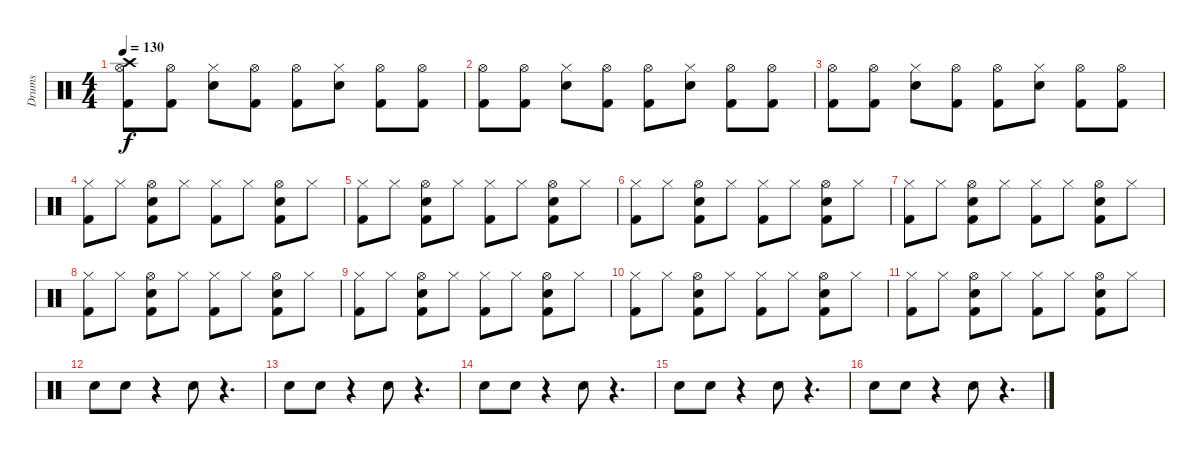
\track ("Drums" "Drums") {instrument percussion}
\staff {score}
\articulation defaults
\ts (4 4)
\tempo 130
\clef neutral
\ks c
("Crash high (hit)" "Hi-Hat (open)" "Kick (hit) 2").8{dy f} ("Hi-Hat (open)" "Kick (hit) 2").8 ("Hi-Hat (closed)" "Electric Snare (hit)").8 ("Hi-Hat (open)" "Kick (hit) 2").8 ("Hi-Hat (open)" "Kick (hit) 2").8 ("Hi-Hat (closed)" "Electric Snare (hit)").8 ("Hi-Hat (open)" "Kick (hit) 2").8 ("Hi-Hat (open)" "Kick (hit) 2").8 |
("Hi-Hat (open)" "Kick (hit) 2").8 ("Hi-Hat (open)" "Kick (hit) 2").8 ("Hi-Hat (closed)" "Electric Snare (hit)").8 ("Hi-Hat (open)" "Kick (hit) 2").8 ("Hi-Hat (open)" "Kick (hit) 2").8 ("Hi-Hat (closed)" "Electric Snare (hit)").8 ("Hi-Hat (open)" "Kick (hit) 2").8 ("Hi-Hat (open)" "Kick (hit) 2").8 |
("Hi-Hat (open)" "Kick (hit) 2").8 ("Hi-Hat (open)" "Kick (hit) 2").8 ("Hi-Hat (closed)" "Electric Snare (hit)").8 ("Hi-Hat (open)" "Kick (hit) 2").8 ("Hi-Hat (open)" "Kick (hit) 2").8 ("Hi-Hat (closed)" "Electric Snare (hit)").8 ("Hi-Hat (open)" "Kick (hit) 2").8 ("Hi-Hat (open)" "Kick (hit) 2").8 |
("Hi-Hat (closed)" "Kick (hit) 2").8 "Hi-Hat (closed)".8 ("Hi-Hat (open)" "Electric Snare (hit)" "Kick (hit) 2").8 "Hi-Hat (closed)".8 ("Hi-Hat (closed)" "Kick (hit) 2").8 "Hi-Hat (closed)".8 ("Hi-Hat (open)" "Electric Snare (hit)" "Kick (hit) 2").8 "Hi-Hat (closed)".8 |
("Hi-Hat (closed)" "Kick (hit) 2").8 "Hi-Hat (closed)".8 ("Hi-Hat (open)" "Electric Snare (hit)" "Kick (hit) 2").8 "Hi-Hat (closed)".8 ("Hi-Hat (closed)" "Kick (hit) 2").8 "Hi-Hat (closed)".8 ("Hi-Hat (open)" "Electric Snare (hit)" "Kick (hit) 2").8 "Hi-Hat (closed)".8 |
("Hi-Hat (closed)" "Kick (hit) 2").8 "Hi-Hat (closed)".8 ("Hi-Hat (open)" "Electric Snare (hit)" "Kick (hit) 2").8 "Hi-Hat (closed)".8 ("Hi-Hat (closed)" "Kick (hit) 2").8 "Hi-Hat (closed)".8 ("Hi-Hat (open)" "Electric Snare (hit)" "Kick (hit) 2").8 "Hi-Hat (closed)".8 |
("Hi-Hat (closed)" "Kick (hit) 2").8 "Hi-Hat (closed)".8 ("Hi-Hat (open)" "Electric Snare (hit)" "Kick (hit) 2").8 "Hi-Hat (closed)".8 ("Hi-Hat (closed)" "Kick (hit) 2").8 "Hi-Hat (closed)".8 ("Hi-Hat (open)" "Electric Snare (hit)" "Kick (hit) 2").8 "Hi-Hat (closed)".8 |
("Hi-Hat (closed)" "Kick (hit) 2").8 "Hi-Hat (closed)".8 ("Hi-Hat (open)" "Electric Snare (hit)" "Kick (hit) 2").8 "Hi-Hat (closed)".8 ("Hi-Hat (closed)" "Kick (hit) 2").8 "Hi-Hat (closed)".8 ("Hi-Hat (open)" "Electric Snare (hit)" "Kick (hit) 2").8 "Hi-Hat (closed)".8 |
("Hi-Hat (closed)" "Kick (hit) 2").8 "Hi-Hat (closed)".8 ("Hi-Hat (open)" "Electric Snare (hit)" "Kick (hit) 2").8 "Hi-Hat (closed)".8 ("Hi-Hat (closed)" "Kick (hit) 2").8 "Hi-Hat (closed)".8 ("Hi-Hat (open)" "Electric Snare (hit)" "Kick (hit) 2").8 "Hi-Hat (closed)".8 |
("Hi-Hat (closed)" "Kick (hit) 2").8 "Hi-Hat (closed)".8 ("Hi-Hat (open)" "Electric Snare (hit)" "Kick (hit) 2").8 "Hi-Hat (closed)".8 ("Hi-Hat (closed)" "Kick (hit) 2").8 "Hi-Hat (closed)".8 ("Hi-Hat (open)" "Electric Snare (hit)" "Kick (hit) 2").8 "Hi-Hat (closed)".8 |
("Hi-Hat (closed)" "Kick (hit) 2").8 "Hi-Hat (closed)".8 ("Hi-Hat (open)" "Electric Snare (hit)" "Kick (hit) 2").8 "Hi-Hat (closed)".8 ("Hi-Hat (closed)" "Kick (hit) 2").8 "Hi-Hat (closed)".8 ("Hi-Hat (open)" "Electric Snare (hit)" "Kick (hit) 2").8 "Hi-Hat (closed)".8 |
"Electric Snare (hit)".8 "Electric Snare (hit)".8 r.4 "Electric Snare (hit)".8 r.4{d} |
"Electric Snare (hit)".8 "Electric Snare (hit)".8 r.4 "Electric Snare (hit)".8 r.4{d} |
"Electric Snare (hit)".8 "Electric Snare (hit)".8 r.4 "Electric Snare (hit)".8 r.4{d} |
"Electric Snare (hit)".8 "Electric Snare (hit)".8 r.4 "Electric Snare (hit)".8 r.4{d} |
"Electric Snare (hit)".8 "Electric Snare (hit)".8 r.4 "Electric Snare (hit)".8 r.4{d}
